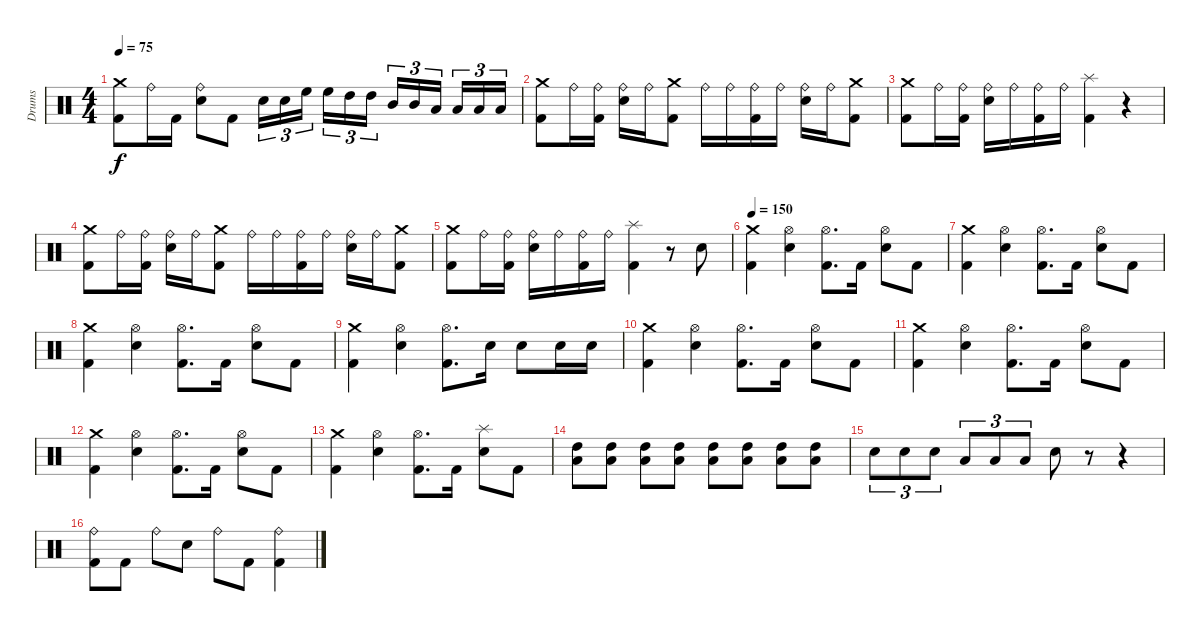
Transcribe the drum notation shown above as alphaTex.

\track ("Drums" "Drums") {instrument percussion}
\staff {score}
\articulation defaults
\ts (4 4)
\tempo 75
\clef neutral
\ks c
("Crash medium (hit)" "Kick (hit) 2").8{dy f} "Ride (bell)".16 "Kick (hit) 2".16 ("Ride (bell)" "Electric Snare (hit)").8 "Kick (hit) 2".8 "Electric Snare (hit)".16{tu (3 2)} "Electric Snare (hit)".16{tu (3 2)} "High Floor Tom (hit)".16{tu (3 2)} "High Floor Tom (hit)".16{tu (3 2)} "High Tom (hit)".16{tu (3 2)} "High Tom (hit)".16{tu (3 2)} "Mid Tom (hit)".16{tu (3 2)} "Mid Tom (hit)".16{tu (3 2)} "Low Tom (hit)".16{tu (3 2)} "Low Tom (hit)".16{tu (3 2)} "Low Floor Tom (hit)".16{tu (3 2)} "Low Floor Tom (hit)".16{tu (3 2)} |
("Crash medium (hit)" "Kick (hit) 2").8 "Ride (bell)".16 ("Ride (bell)" "Kick (hit) 2").16 ("Ride (bell)" "Electric Snare (hit)").16 "Ride (bell)".16 ("Crash medium (hit)" "Kick (hit) 2").8 "Ride (bell)".16 "Ride (bell)".16 ("Ride (bell)" "Kick (hit) 2").16 "Ride (bell)".16 ("Ride (bell)" "Electric Snare (hit)").16 "Ride (bell)".16 ("Crash medium (hit)" "Kick (hit) 2").8 |
("Crash medium (hit)" "Kick (hit) 2").8 "Ride (bell)".16 ("Ride (bell)" "Kick (hit) 2").16 ("Ride (bell)" "Electric Snare (hit)").16 "Ride (bell)".16 ("Ride (bell)" "Kick (hit) 2").16 "Ride (bell)".16 ("Splash (hit)" "Kick (hit) 2").4 r.4 |
("Crash medium (hit)" "Kick (hit) 2").8 "Ride (bell)".16 ("Ride (bell)" "Kick (hit) 2").16 ("Ride (bell)" "Electric Snare (hit)").16 "Ride (bell)".16 ("Crash medium (hit)" "Kick (hit) 2").8 "Ride (bell)".16 "Ride (bell)".16 ("Ride (bell)" "Kick (hit) 2").16 "Ride (bell)".16 ("Ride (bell)" "Electric Snare (hit)").16 "Ride (bell)".16 ("Crash medium (hit)" "Kick (hit) 2").8 |
("Crash medium (hit)" "Kick (hit) 2").8 "Ride (bell)".16 ("Ride (bell)" "Kick (hit) 2").16 ("Ride (bell)" "Electric Snare (hit)").16 "Ride (bell)".16 ("Ride (bell)" "Kick (hit) 2").16 "Ride (bell)".16 ("Splash (hit)" "Kick (hit) 2").4 r.8 "Electric Snare (hit)".8 |
\tempo 150
("Crash medium (hit)" "Kick (hit) 2").4 ("Hi-Hat (open)" "Electric Snare (hit)").4 ("Hi-Hat (open)" "Kick (hit) 2").8{d} "Kick (hit) 2".16 ("Hi-Hat (open)" "Electric Snare (hit)").8 "Kick (hit) 2".8 |
("Crash medium (hit)" "Kick (hit) 2").4 ("Hi-Hat (open)" "Electric Snare (hit)").4 ("Hi-Hat (open)" "Kick (hit) 2").8{d} "Kick (hit) 2".16 ("Hi-Hat (open)" "Electric Snare (hit)").8 "Kick (hit) 2".8 |
("Crash medium (hit)" "Kick (hit) 2").4 ("Hi-Hat (open)" "Electric Snare (hit)").4 ("Hi-Hat (open)" "Kick (hit) 2").8{d} "Kick (hit) 2".16 ("Hi-Hat (open)" "Electric Snare (hit)").8 "Kick (hit) 2".8 |
("Crash medium (hit)" "Kick (hit) 2").4 ("Hi-Hat (open)" "Electric Snare (hit)").4 ("Hi-Hat (open)" "Kick (hit) 2").8{d} "Electric Snare (hit)".16 "Electric Snare (hit)".8 "Electric Snare (hit)".16 "Electric Snare (hit)".16 |
("Crash medium (hit)" "Kick (hit) 2").4 ("Hi-Hat (open)" "Electric Snare (hit)").4 ("Hi-Hat (open)" "Kick (hit) 2").8{d} "Kick (hit) 2".16 ("Hi-Hat (open)" "Electric Snare (hit)").8 "Kick (hit) 2".8 |
("Crash medium (hit)" "Kick (hit) 2").4 ("Hi-Hat (open)" "Electric Snare (hit)").4 ("Hi-Hat (open)" "Kick (hit) 2").8{d} "Kick (hit) 2".16 ("Hi-Hat (open)" "Electric Snare (hit)").8 "Kick (hit) 2".8 |
("Crash medium (hit)" "Kick (hit) 2").4 ("Hi-Hat (open)" "Electric Snare (hit)").4 ("Hi-Hat (open)" "Kick (hit) 2").8{d} "Kick (hit) 2".16 ("Hi-Hat (open)" "Electric Snare (hit)").8 "Kick (hit) 2".8 |
("Crash medium (hit)" "Kick (hit) 2").4 ("Hi-Hat (open)" "Electric Snare (hit)").4 ("Hi-Hat (open)" "Kick (hit) 2").8{d} "Kick (hit) 2".16 ("Splash (hit)" "Electric Snare (hit)").8 "Kick (hit) 2".8 |
("High Tom (hit)" "Low Tom (hit)").8 ("High Tom (hit)" "Low Tom (hit)").8 ("High Tom (hit)" "Low Tom (hit)").8 ("High Tom (hit)" "Low Tom (hit)").8 ("High Tom (hit)" "Low Floor Tom (hit)").8 ("High Tom (hit)" "Low Floor Tom (hit)").8 ("High Tom (hit)" "Low Floor Tom (hit)").8 ("High Tom (hit)" "Low Floor Tom (hit)").8 |
"Electric Snare (hit)".8{tu (3 2)} "Electric Snare (hit)".8{tu (3 2)} "Electric Snare (hit)".8{tu (3 2)} "Low Tom (hit)".8{tu (3 2)} "Low Tom (hit)".8{tu (3 2)} "Low Tom (hit)".8{tu (3 2)} "Electric Snare (hit)".8 r.8 r.4 |
("Ride (bell)" "Kick (hit) 2").8 "Kick (hit) 2".8 "Ride (bell)".8 "Electric Snare (hit)".8 "Ride (bell)".8 "Kick (hit) 2".8 ("Ride (bell)" "Kick (hit) 2").4
